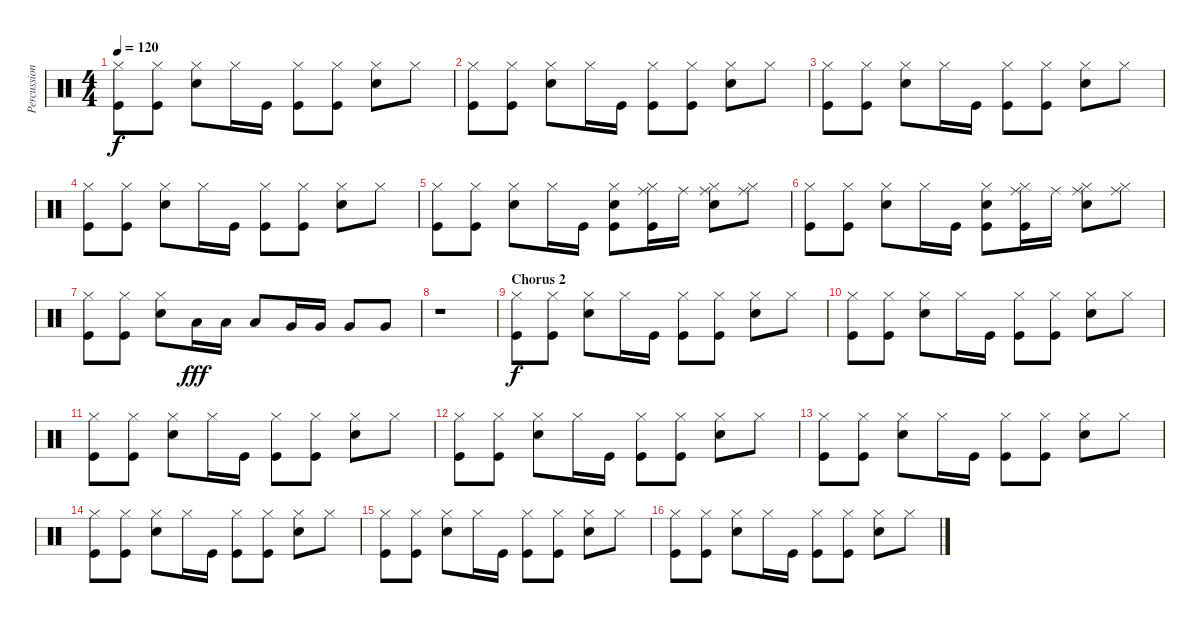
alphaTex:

\track ("Percussion" "Percussion") {instrument percussion}
\staff {score}
\articulation defaults
\ts (4 4)
\tempo 120
\clef neutral
\ks c
("Hi-Hat (closed)" "Kick (hit)").8{dy f} ("Hi-Hat (closed)" "Kick (hit)").8 ("Hi-Hat (closed)" "Snare (hit) 2").8 "Hi-Hat (closed)".16 "Kick (hit)".16 ("Hi-Hat (closed)" "Kick (hit)").8 ("Hi-Hat (closed)" "Kick (hit)").8 ("Hi-Hat (closed)" "Snare (hit) 2").8 "Hi-Hat (closed)".8 |
("Hi-Hat (closed)" "Kick (hit)").8 ("Hi-Hat (closed)" "Kick (hit)").8 ("Hi-Hat (closed)" "Snare (hit) 2").8 "Hi-Hat (closed)".16 "Kick (hit)".16 ("Hi-Hat (closed)" "Kick (hit)").8 ("Hi-Hat (closed)" "Kick (hit)").8 ("Hi-Hat (closed)" "Snare (hit) 2").8 "Hi-Hat (closed)".8 |
("Hi-Hat (closed)" "Kick (hit)").8 ("Hi-Hat (closed)" "Kick (hit)").8 ("Hi-Hat (closed)" "Snare (hit) 2").8 "Hi-Hat (closed)".16 "Kick (hit)".16 ("Hi-Hat (closed)" "Kick (hit)").8 ("Hi-Hat (closed)" "Kick (hit)").8 ("Hi-Hat (closed)" "Snare (hit) 2").8 "Hi-Hat (closed)".8 |
("Hi-Hat (closed)" "Kick (hit)").8 ("Hi-Hat (closed)" "Kick (hit)").8 ("Hi-Hat (closed)" "Snare (hit) 2").8 "Hi-Hat (closed)".16 "Kick (hit)".16 ("Hi-Hat (closed)" "Kick (hit)").8 ("Hi-Hat (closed)" "Kick (hit)").8 ("Hi-Hat (closed)" "Snare (hit) 2").8 "Hi-Hat (closed)".8 |
("Hi-Hat (closed)" "Kick (hit)").8 ("Hi-Hat (closed)" "Kick (hit)").8 ("Hi-Hat (closed)" "Snare (hit) 2").8 "Hi-Hat (closed)".16 "Kick (hit)".16 ("Hi-Hat (closed)" "Hand Clap (hit)" "Kick (hit)").8 ("Hi-Hat (closed)" "Ride (middle)" "Kick (hit)").16 "Ride (middle)".16 ("Hi-Hat (closed)" "Ride (middle)" "Snare (hit) 2").8 ("Hi-Hat (closed)" "Ride (middle)").8 |
("Hi-Hat (closed)" "Kick (hit)").8 ("Hi-Hat (closed)" "Kick (hit)").8 ("Hi-Hat (closed)" "Snare (hit) 2").8 "Hi-Hat (closed)".16 "Kick (hit)".16 ("Hi-Hat (closed)" "Hand Clap (hit)" "Kick (hit)").8 ("Hi-Hat (closed)" "Ride (middle)" "Kick (hit)").16 "Ride (middle)".16 ("Hi-Hat (closed)" "Ride (middle)" "Snare (hit) 2").8 ("Hi-Hat (closed)" "Ride (middle)").8 |
("Hi-Hat (closed)" "Kick (hit)").8 ("Hi-Hat (closed)" "Kick (hit)").8 ("Hi-Hat (closed)" "Snare (hit) 2").8 "Low Tom (hit)".16{dy fff} "Low Tom (hit)".16 "Low Tom (hit)".8 "Very Low Tom (hit)".16 "Very Low Tom (hit)".16 "Very Low Tom (hit)".8 "Very Low Tom (hit)".8 |
r.1 |
\section ("" "Chorus 2")
("Hi-Hat (closed)" "Kick (hit)").8{dy f} ("Hi-Hat (closed)" "Kick (hit)").8 ("Hi-Hat (closed)" "Snare (hit) 2").8 "Hi-Hat (closed)".16 "Kick (hit)".16 ("Hi-Hat (closed)" "Kick (hit)").8 ("Hi-Hat (closed)" "Kick (hit)").8 ("Hi-Hat (closed)" "Snare (hit) 2").8 "Hi-Hat (closed)".8 |
("Hi-Hat (closed)" "Kick (hit)").8 ("Hi-Hat (closed)" "Kick (hit)").8 ("Hi-Hat (closed)" "Snare (hit) 2").8 "Hi-Hat (closed)".16 "Kick (hit)".16 ("Hi-Hat (closed)" "Kick (hit)").8 ("Hi-Hat (closed)" "Kick (hit)").8 ("Hi-Hat (closed)" "Snare (hit) 2").8 "Hi-Hat (closed)".8 |
("Hi-Hat (closed)" "Kick (hit)").8 ("Hi-Hat (closed)" "Kick (hit)").8 ("Hi-Hat (closed)" "Snare (hit) 2").8 "Hi-Hat (closed)".16 "Kick (hit)".16 ("Hi-Hat (closed)" "Kick (hit)").8 ("Hi-Hat (closed)" "Kick (hit)").8 ("Hi-Hat (closed)" "Snare (hit) 2").8 "Hi-Hat (closed)".8 |
("Hi-Hat (closed)" "Kick (hit)").8 ("Hi-Hat (closed)" "Kick (hit)").8 ("Hi-Hat (closed)" "Snare (hit) 2").8 "Hi-Hat (closed)".16 "Kick (hit)".16 ("Hi-Hat (closed)" "Kick (hit)").8 ("Hi-Hat (closed)" "Kick (hit)").8 ("Hi-Hat (closed)" "Snare (hit) 2").8 "Hi-Hat (closed)".8 |
("Hi-Hat (closed)" "Kick (hit)").8 ("Hi-Hat (closed)" "Kick (hit)").8 ("Hi-Hat (closed)" "Snare (hit) 2").8 "Hi-Hat (closed)".16 "Kick (hit)".16 ("Hi-Hat (closed)" "Kick (hit)").8 ("Hi-Hat (closed)" "Kick (hit)").8 ("Hi-Hat (closed)" "Snare (hit) 2").8 "Hi-Hat (closed)".8 |
("Hi-Hat (closed)" "Kick (hit)").8 ("Hi-Hat (closed)" "Kick (hit)").8 ("Hi-Hat (closed)" "Snare (hit) 2").8 "Hi-Hat (closed)".16 "Kick (hit)".16 ("Hi-Hat (closed)" "Kick (hit)").8 ("Hi-Hat (closed)" "Kick (hit)").8 ("Hi-Hat (closed)" "Snare (hit) 2").8 "Hi-Hat (closed)".8 |
("Hi-Hat (closed)" "Kick (hit)").8 ("Hi-Hat (closed)" "Kick (hit)").8 ("Hi-Hat (closed)" "Snare (hit) 2").8 "Hi-Hat (closed)".16 "Kick (hit)".16 ("Hi-Hat (closed)" "Kick (hit)").8 ("Hi-Hat (closed)" "Kick (hit)").8 ("Hi-Hat (closed)" "Snare (hit) 2").8 "Hi-Hat (closed)".8 |
("Hi-Hat (closed)" "Kick (hit)").8 ("Hi-Hat (closed)" "Kick (hit)").8 ("Hi-Hat (closed)" "Snare (hit) 2").8 "Hi-Hat (closed)".16 "Kick (hit)".16 ("Hi-Hat (closed)" "Kick (hit)").8 ("Hi-Hat (closed)" "Kick (hit)").8 ("Hi-Hat (closed)" "Snare (hit) 2").8 "Hi-Hat (closed)".8
